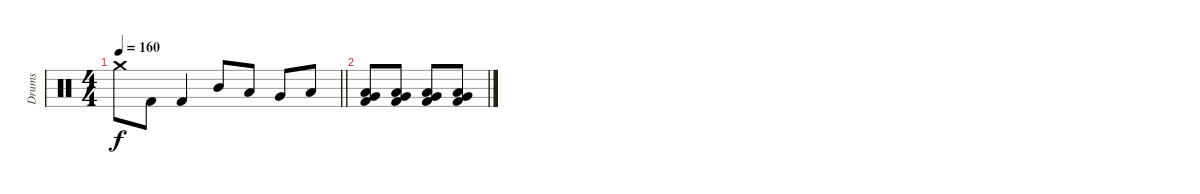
\track ("Drums" "Drums") {instrument percussion}
\staff {score}
\articulation defaults
\ts (4 4)
\tempo 160
\clef neutral
\barLineRight lightlight
\ks c "Crash medium (hit)".8{dy f} "Kick (hit) 2".8 "Kick (hit) 2".4 "Mid Tom (hit)".8 "Low Tom (hit)".8 "Very Low Tom (hit)".8 "Low Floor Tom (hit)".8
|
("Very Low Tom (hit)" "Low Floor Tom (hit)" "Kick (hit) 2").8 ("Very Low Tom (hit)" "Low Floor Tom (hit)" "Kick (hit) 2").8 ("Very Low Tom (hit)" "Low Floor Tom (hit)" "Kick (hit) 2").8 ("Very Low Tom (hit)" "Low Floor Tom (hit)" "Kick (hit) 2").8
